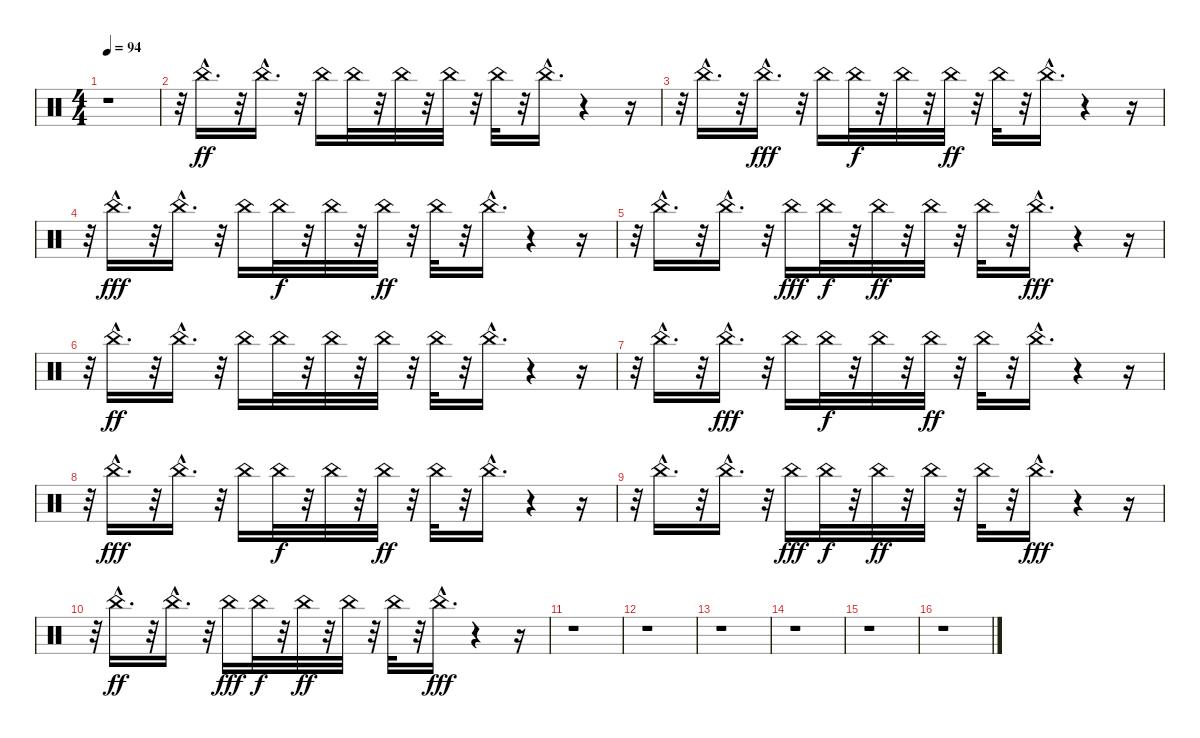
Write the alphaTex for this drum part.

\track "" {instrument percussion}
\staff {score}
\articulation defaults
\ts (4 4)
\tempo 94
\clef neutral
\ks c
r.1{dy ff} |
r.32 "China (choke)"{hac}.16{d} r.32 "China (choke)"{hac}.16{d} r.32 "China (choke)".16 "China (choke)".32 r.32 "China (choke)".32 r.32 "China (choke)".32 r.32 "China (choke)".32 r.32 "China (choke)"{hac}.16{d} r.4 r.16 |
r.32 "China (choke)"{hac}.16{d} r.32 "China (choke)"{hac}.16{d dy fff} r.32 "China (choke)".16 "China (choke)".32{dy f} r.32 "China (choke)".32 r.32 "China (choke)".32{dy ff} r.32 "China (choke)".32 r.32 "China (choke)"{hac}.16{d} r.4 r.16 |
r.32 "China (choke)"{hac}.16{d dy fff} r.32 "China (choke)"{hac}.16{d} r.32 "China (choke)".16{volume 6} "China (choke)".32{dy f} r.32 "China (choke)".32 r.32 "China (choke)".32{dy ff} r.32 "China (choke)".32 r.32 "China (choke)"{hac}.16{d} r.4 r.16 |
r.32 "China (choke)"{hac}.16{d volume 6} r.32 "China (choke)"{hac}.16{d} r.32 "China (choke)".16{dy fff} "China (choke)".32{dy f} r.32 "China (choke)".32{dy ff} r.32 "China (choke)".32 r.32 "China (choke)".32 r.32 "China (choke)"{hac}.16{d dy fff} r.4 r.16 |
r.32 "China (choke)"{hac}.16{d dy ff} r.32 "China (choke)"{hac}.16{d} r.32 "China (choke)".16 "China (choke)".32 r.32 "China (choke)".32{volume 6} r.32 "China (choke)".32 r.32 "China (choke)".32 r.32 "China (choke)"{hac}.16{d volume 6} r.4 r.16 |
r.32 "China (choke)"{hac}.16{d volume 6} r.32 "China (choke)"{hac}.16{d dy fff volume 5} r.32 "China (choke)".16{volume 5} "China (choke)".32{dy f} r.32 "China (choke)".32{volume 5} r.32 "China (choke)".32{dy ff volume 5} r.32 "China (choke)".32 r.32 "China (choke)"{hac}.16{d volume 4} r.4 r.16 |
r.32 "China (choke)"{hac}.16{d dy fff volume 4} r.32 "China (choke)"{hac}.16{d volume 3} r.32 "China (choke)".16{volume 3} "China (choke)".32{dy f volume 3} r.32 "China (choke)".32 r.32 "China (choke)".32{dy ff} r.32 "China (choke)".32 r.32 "China (choke)"{hac}.16{d volume 3} r.4 r.16 |
r.32 "China (choke)"{hac}.16{d volume 2} r.32 "China (choke)"{hac}.16{d} r.32 "China (choke)".16{dy fff volume 2} "China (choke)".32{dy f} r.32 "China (choke)".32{dy ff} r.32 "China (choke)".32{volume 2} r.32 "China (choke)".32{volume 2} r.32 "China (choke)"{hac}.16{d dy fff} r.4 r.16 |
r.32 "China (choke)"{hac}.16{d dy ff volume 1} r.32 "China (choke)"{hac}.16{d} r.32 "China (choke)".16{dy fff} "China (choke)".32{dy f volume 0} r.32 "China (choke)".32{dy ff} r.32 "China (choke)".32 r.32 "China (choke)".32{volume 0} r.32 "China (choke)"{hac}.16{d dy fff volume 0} r.4 r.16 |
r.1 |
r.1 |
r.1 |
r.1 |
r.1 |
r.1
